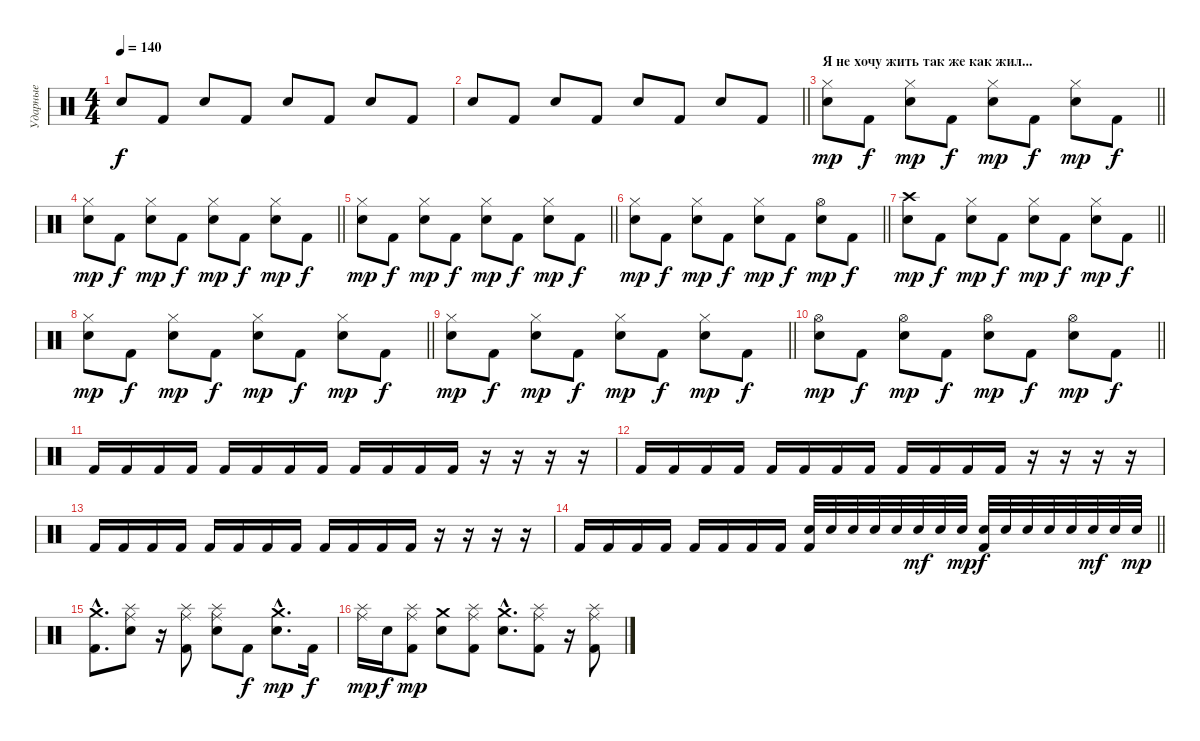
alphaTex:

\track ("Ударные" "Ударные") {instrument percussion}
\staff {score}
\articulation defaults
\ts (4 4)
\tempo 140
\clef neutral
\ks c "Snare (hit) 2".8{dy f} "Kick (hit) 2".8 "Snare (hit) 2".8 "Kick (hit) 2".8 "Snare (hit) 2".8 "Kick (hit) 2".8 "Snare (hit) 2".8 "Kick (hit) 2".8
|
\barLineRight lightlight "Snare (hit) 2".8 "Kick (hit) 2".8 "Snare (hit) 2".8 "Kick (hit) 2".8 "Snare (hit) 2".8 "Kick (hit) 2".8 "Snare (hit) 2".8 "Kick (hit) 2".8
|
\section ("" "Я не хочу жить так же как жил...")
\barLineRight lightlight
("Hi-Hat (closed)" "Snare (hit) 2").8{dy mp} "Kick (hit) 2".8{dy f} ("Hi-Hat (closed)" "Snare (hit) 2").8{dy mp} "Kick (hit) 2".8{dy f} ("Hi-Hat (closed)" "Snare (hit) 2").8{dy mp} "Kick (hit) 2".8{dy f} ("Hi-Hat (closed)" "Snare (hit) 2").8{dy mp} "Kick (hit) 2".8{dy f} |
\barLineRight lightlight
("Hi-Hat (closed)" "Snare (hit) 2").8{dy mp} "Kick (hit) 2".8{dy f} ("Hi-Hat (closed)" "Snare (hit) 2").8{dy mp} "Kick (hit) 2".8{dy f} ("Hi-Hat (closed)" "Snare (hit) 2").8{dy mp} "Kick (hit) 2".8{dy f} ("Hi-Hat (closed)" "Snare (hit) 2").8{dy mp} "Kick (hit) 2".8{dy f} |
\barLineRight lightlight
("Hi-Hat (closed)" "Snare (hit) 2").8{dy mp} "Kick (hit) 2".8{dy f} ("Hi-Hat (closed)" "Snare (hit) 2").8{dy mp} "Kick (hit) 2".8{dy f} ("Hi-Hat (closed)" "Snare (hit) 2").8{dy mp} "Kick (hit) 2".8{dy f} ("Hi-Hat (closed)" "Snare (hit) 2").8{dy mp} "Kick (hit) 2".8{dy f} |
\barLineRight lightlight
("Hi-Hat (closed)" "Snare (hit) 2").8{dy mp} "Kick (hit) 2".8{dy f} ("Hi-Hat (closed)" "Snare (hit) 2").8{dy mp} "Kick (hit) 2".8{dy f} ("Hi-Hat (closed)" "Snare (hit) 2").8{dy mp} "Kick (hit) 2".8{dy f} ("Hi-Hat (open)" "Snare (hit) 2").8{dy mp} "Kick (hit) 2".8{dy f} |
\barLineRight lightlight
("Crash high (hit)" "Snare (hit) 2").8{dy mp} "Kick (hit) 2".8{dy f} ("Hi-Hat (closed)" "Snare (hit) 2").8{dy mp} "Kick (hit) 2".8{dy f} ("Hi-Hat (closed)" "Snare (hit) 2").8{dy mp} "Kick (hit) 2".8{dy f} ("Hi-Hat (closed)" "Snare (hit) 2").8{dy mp} "Kick (hit) 2".8{dy f} |
\barLineRight lightlight
("Hi-Hat (closed)" "Snare (hit) 2").8{dy mp} "Kick (hit) 2".8{dy f} ("Hi-Hat (closed)" "Snare (hit) 2").8{dy mp} "Kick (hit) 2".8{dy f} ("Hi-Hat (closed)" "Snare (hit) 2").8{dy mp} "Kick (hit) 2".8{dy f} ("Hi-Hat (closed)" "Snare (hit) 2").8{dy mp} "Kick (hit) 2".8{dy f} |
\barLineRight lightlight
("Hi-Hat (closed)" "Snare (hit) 2").8{dy mp} "Kick (hit) 2".8{dy f} ("Hi-Hat (closed)" "Snare (hit) 2").8{dy mp} "Kick (hit) 2".8{dy f} ("Hi-Hat (closed)" "Snare (hit) 2").8{dy mp} "Kick (hit) 2".8{dy f} ("Hi-Hat (closed)" "Snare (hit) 2").8{dy mp} "Kick (hit) 2".8{dy f} |
\barLineRight lightlight
("Hi-Hat (open)" "Snare (hit) 2").8{dy mp} "Kick (hit) 2".8{dy f} ("Hi-Hat (open)" "Snare (hit) 2").8{dy mp} "Kick (hit) 2".8{dy f} ("Hi-Hat (open)" "Snare (hit) 2").8{dy mp} "Kick (hit) 2".8{dy f} ("Hi-Hat (open)" "Snare (hit) 2").8{dy mp} "Kick (hit) 2".8{dy f} |
"Kick (hit) 2".16 "Kick (hit) 2".16 "Kick (hit) 2".16 "Kick (hit) 2".16 "Kick (hit) 2".16 "Kick (hit) 2".16 "Kick (hit) 2".16 "Kick (hit) 2".16 "Kick (hit) 2".16 "Kick (hit) 2".16 "Kick (hit) 2".16 "Kick (hit) 2".16 r.16 r.16 r.16 r.16 |
"Kick (hit) 2".16 "Kick (hit) 2".16 "Kick (hit) 2".16 "Kick (hit) 2".16 "Kick (hit) 2".16 "Kick (hit) 2".16 "Kick (hit) 2".16 "Kick (hit) 2".16 "Kick (hit) 2".16 "Kick (hit) 2".16 "Kick (hit) 2".16 "Kick (hit) 2".16 r.16 r.16 r.16 r.16 |
"Kick (hit) 2".16 "Kick (hit) 2".16 "Kick (hit) 2".16 "Kick (hit) 2".16 "Kick (hit) 2".16 "Kick (hit) 2".16 "Kick (hit) 2".16 "Kick (hit) 2".16 "Kick (hit) 2".16 "Kick (hit) 2".16 "Kick (hit) 2".16 "Kick (hit) 2".16 r.16 r.16 r.16 r.16 |
\barLineRight lightlight "Kick (hit) 2".16 "Kick (hit) 2".16 "Kick (hit) 2".16 "Kick (hit) 2".16 "Kick (hit) 2".16 "Kick (hit) 2".16 "Kick (hit) 2".16 "Kick (hit) 2".16
("Snare (hit) 2" "Kick (hit) 2").32 "Snare (hit) 2".32 "Snare (hit) 2".32 "Snare (hit) 2".32 "Snare (hit) 2".32 "Snare (hit) 2".32{dy mf} "Snare (hit) 2".32 "Snare (hit) 2".32{dy mp} ("Snare (hit) 2" "Kick (hit) 2").32{dy f} "Snare (hit) 2".32 "Snare (hit) 2".32 "Snare (hit) 2".32 "Snare (hit) 2".32 "Snare (hit) 2".32{dy mf} "Snare (hit) 2".32 "Snare (hit) 2".32{dy mp} |
("Crash medium (hit)"{hac} "Kick (hit) 2"{hac}).8{d} ("Splash (hit)" "Ride (middle)" "Snare (hit) 2").8 r.16 ("Splash (hit)" "Ride (middle)" "Kick (hit) 2").8 ("Splash (hit)" "Ride (middle)" "Snare (hit) 2").8 "Kick (hit) 2".8{dy f} ("Crash medium (hit)"{hac} "Snare (hit) 2"{hac}).8{d dy mp} "Kick (hit) 2".16{dy f} |
("Splash (hit)" "Ride (middle)").16{dy mp} "Snare (hit) 2".16{dy f} ("Splash (hit)" "Ride (middle)" "Kick (hit) 2").8{dy mp} ("Crash medium (hit)" "Snare (hit) 2").8 ("Splash (hit)" "Ride (middle)" "Kick (hit) 2").8 ("Crash medium (hit)"{hac} "Snare (hit) 2"{hac}).8{d} ("Splash (hit)" "Ride (middle)" "Kick (hit) 2").8 r.16 ("Splash (hit)" "Ride (middle)" "Kick (hit) 2").8
